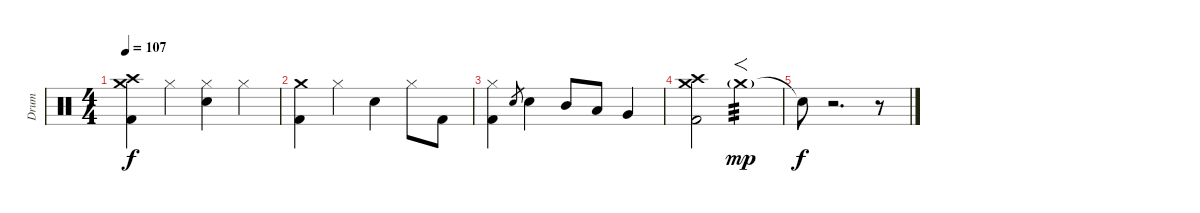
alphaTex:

\track ("Drum" "Drum") {instrument percussion}
\staff {score}
\articulation defaults
\ts (4 4)
\tempo 107
\clef neutral
\ks c
("Kick (hit) 2" "Crash medium (hit)" "Crash high (hit)").4{dy f} "Hi-Hat (closed)".4 ("Hi-Hat (closed)" "Snare (hit) 2").4 "Hi-Hat (closed)".4 |
("Kick (hit) 2" "Crash medium (hit)").4 "Hi-Hat (closed)".4 "Snare (hit) 2".4 "Hi-Hat (closed)".8 "Kick (hit) 2".8 |
("Hi-Hat (closed)" "Kick (hit) 2").4 "Snare (hit) 2".8{gr} "Snare (hit) 2".4 "Mid Tom (hit)".8 "Low Tom (hit)".8 "Very Low Tom (hit)".4 |
("Kick (hit) 2" "Crash high (hit)" "Crash medium (hit)").2 "Crash medium (hit)"{g}.2{f tp 3 dy mp} |
"Snare (hit)"{t}.8{dy f} r.2{d} r.8
